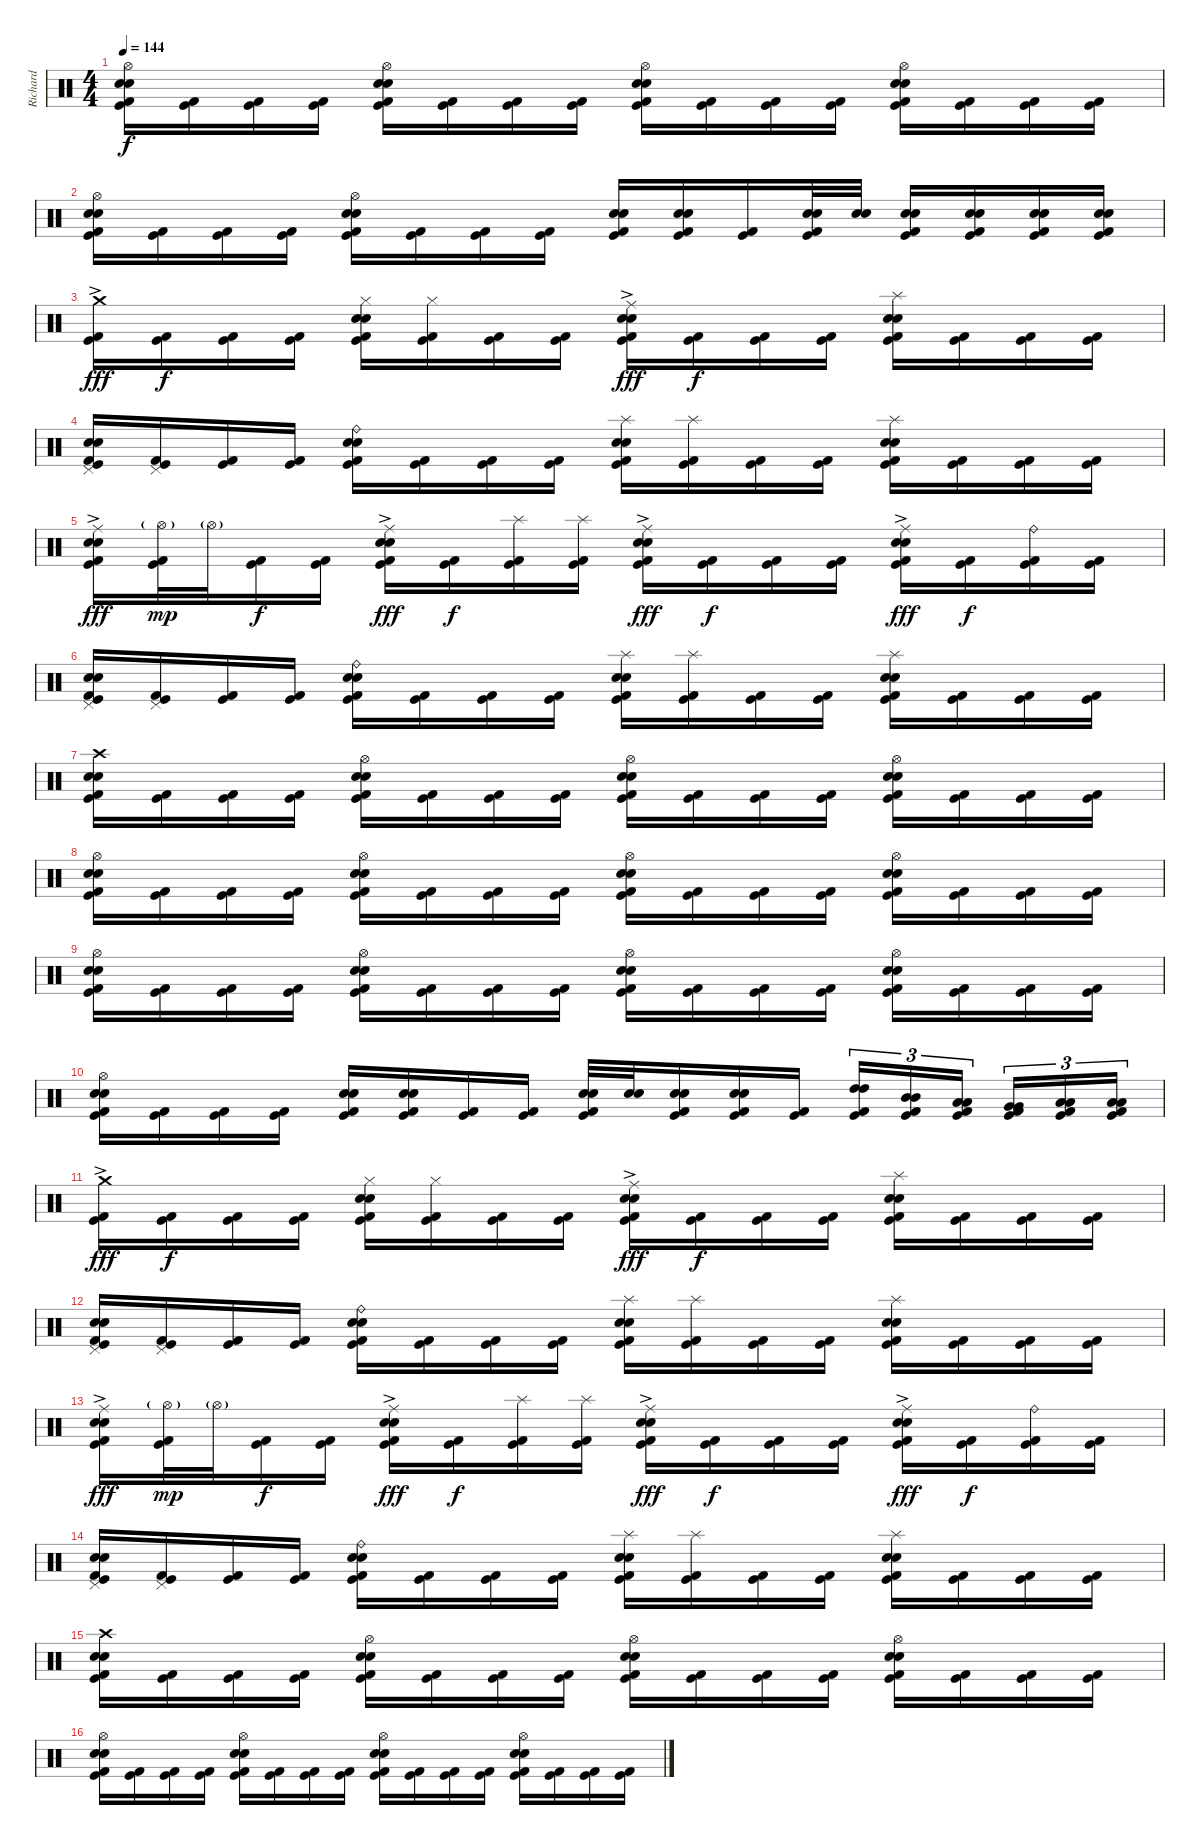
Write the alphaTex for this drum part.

\track ("Richard" "Richard") {instrument percussion}
\staff {score}
\articulation defaults
\ts (4 4)
\tempo 144
\clef neutral
\ks c
("Hi-Hat (open)" "Snare (hit) 2" "Electric Snare (hit)" "Kick (hit) 2" "Kick (hit)").16{dy f} ("Kick (hit) 2" "Kick (hit)").16 ("Kick (hit) 2" "Kick (hit)").16 ("Kick (hit) 2" "Kick (hit)").16 ("Hi-Hat (open)" "Snare (hit) 2" "Electric Snare (hit)" "Kick (hit) 2" "Kick (hit)").16 ("Kick (hit) 2" "Kick (hit)").16 ("Kick (hit) 2" "Kick (hit)").16 ("Kick (hit) 2" "Kick (hit)").16 ("Hi-Hat (open)" "Snare (hit) 2" "Electric Snare (hit)" "Kick (hit) 2" "Kick (hit)").16 ("Kick (hit) 2" "Kick (hit)").16 ("Kick (hit) 2" "Kick (hit)").16 ("Kick (hit) 2" "Kick (hit)").16 ("Hi-Hat (open)" "Snare (hit) 2" "Electric Snare (hit)" "Kick (hit) 2" "Kick (hit)").16 ("Kick (hit) 2" "Kick (hit)").16 ("Kick (hit) 2" "Kick (hit)").16 ("Kick (hit) 2" "Kick (hit)").16 |
("Hi-Hat (open)" "Snare (hit) 2" "Electric Snare (hit)" "Kick (hit) 2" "Kick (hit)").16 ("Kick (hit) 2" "Kick (hit)").16 ("Kick (hit) 2" "Kick (hit)").16 ("Kick (hit) 2" "Kick (hit)").16 ("Hi-Hat (open)" "Snare (hit) 2" "Electric Snare (hit)" "Kick (hit) 2" "Kick (hit)").16 ("Kick (hit) 2" "Kick (hit)").16 ("Kick (hit) 2" "Kick (hit)").16 ("Kick (hit) 2" "Kick (hit)").16 ("Snare (hit) 2" "Electric Snare (hit)" "Kick (hit) 2" "Kick (hit)").16 ("Snare (hit) 2" "Electric Snare (hit)" "Kick (hit) 2" "Kick (hit)").16 ("Kick (hit) 2" "Kick (hit)").16 ("Snare (hit) 2" "Electric Snare (hit)" "Kick (hit) 2" "Kick (hit)").32 ("Snare (hit) 2" "Electric Snare (hit)").32 ("Snare (hit) 2" "Electric Snare (hit)" "Kick (hit) 2" "Kick (hit)").16 ("Snare (hit) 2" "Electric Snare (hit)" "Kick (hit) 2" "Kick (hit)").16 ("Snare (hit) 2" "Electric Snare (hit)" "Kick (hit) 2" "Kick (hit)").16 ("Snare (hit) 2" "Electric Snare (hit)" "Kick (hit) 2" "Kick (hit)").16 |
("Crash medium (hit)"{ac} "Kick (hit) 2" "Kick (hit)").16{dy fff} ("Kick (hit) 2" "Kick (hit)").16{dy f} ("Kick (hit) 2" "Kick (hit)").16 ("Kick (hit) 2" "Kick (hit)").16 ("Hi-Hat (closed)" "Snare (hit) 2" "Electric Snare (hit)" "Kick (hit) 2" "Kick (hit)").16 ("Hi-Hat (closed)" "Kick (hit) 2" "Kick (hit)").16 ("Kick (hit) 2" "Kick (hit)").16 ("Kick (hit) 2" "Kick (hit)").16 ("Ride (middle)"{ac} "Snare (hit) 2" "Electric Snare (hit)" "Kick (hit) 2" "Kick (hit)").16{dy fff} ("Kick (hit) 2" "Kick (hit)").16{dy f} ("Kick (hit) 2" "Kick (hit)").16 ("Kick (hit) 2" "Kick (hit)").16 ("Splash (hit)" "Snare (hit) 2" "Electric Snare (hit)" "Kick (hit) 2" "Kick (hit)").16 ("Kick (hit) 2" "Kick (hit)").16 ("Kick (hit) 2" "Kick (hit)").16 ("Kick (hit) 2" "Kick (hit)").16 |
("Pedal Hi-Hat (hit)" "Snare (hit) 2" "Electric Snare (hit)" "Kick (hit) 2" "Kick (hit)").16 ("Pedal Hi-Hat (hit)" "Kick (hit) 2" "Kick (hit)").16 ("Kick (hit) 2" "Kick (hit)").16 ("Kick (hit) 2" "Kick (hit)").16 ("Ride (bell)" "Snare (hit) 2" "Electric Snare (hit)" "Kick (hit) 2" "Kick (hit)").16 ("Kick (hit) 2" "Kick (hit)").16 ("Kick (hit) 2" "Kick (hit)").16 ("Kick (hit) 2" "Kick (hit)").16 ("Splash (hit)" "Snare (hit) 2" "Electric Snare (hit)" "Kick (hit) 2" "Kick (hit)").16 ("Splash (hit)" "Kick (hit) 2" "Kick (hit)").16 ("Kick (hit) 2" "Kick (hit)").16 ("Kick (hit) 2" "Kick (hit)").16 ("Splash (hit)" "Snare (hit) 2" "Electric Snare (hit)" "Kick (hit) 2" "Kick (hit)").16 ("Kick (hit) 2" "Kick (hit)").16 ("Kick (hit) 2" "Kick (hit)").16 ("Kick (hit) 2" "Kick (hit)").16 |
("Ride (middle)"{ac} "Snare (hit) 2" "Electric Snare (hit)" "Kick (hit) 2" "Kick (hit)").16{dy fff} ("Hi-Hat (open)"{g} "Kick (hit) 2" "Kick (hit)").32{dy mp} "Hi-Hat (open)"{g}.32 ("Kick (hit) 2" "Kick (hit)").16{dy f} ("Kick (hit) 2" "Kick (hit)").16 ("Ride (middle)"{ac} "Snare (hit) 2" "Electric Snare (hit)" "Kick (hit) 2" "Kick (hit)").16{dy fff} ("Kick (hit) 2" "Kick (hit)").16{dy f} ("Splash (hit)" "Kick (hit) 2" "Kick (hit)").16 ("Splash (hit)" "Kick (hit) 2" "Kick (hit)").16 ("Ride (middle)"{ac} "Snare (hit) 2" "Electric Snare (hit)" "Kick (hit) 2" "Kick (hit)").16{dy fff} ("Kick (hit) 2" "Kick (hit)").16{dy f} ("Kick (hit) 2" "Kick (hit)").16 ("Kick (hit) 2" "Kick (hit)").16 ("Ride (middle)"{ac} "Snare (hit) 2" "Electric Snare (hit)" "Kick (hit) 2" "Kick (hit)").16{dy fff} ("Kick (hit) 2" "Kick (hit)").16{dy f} ("Ride (bell)" "Kick (hit) 2" "Kick (hit)").16 ("Kick (hit) 2" "Kick (hit)").16 |
("Pedal Hi-Hat (hit)" "Snare (hit) 2" "Electric Snare (hit)" "Kick (hit) 2" "Kick (hit)").16 ("Pedal Hi-Hat (hit)" "Kick (hit) 2" "Kick (hit)").16 ("Kick (hit) 2" "Kick (hit)").16 ("Kick (hit) 2" "Kick (hit)").16 ("Ride (bell)" "Snare (hit) 2" "Electric Snare (hit)" "Kick (hit) 2" "Kick (hit)").16 ("Kick (hit) 2" "Kick (hit)").16 ("Kick (hit) 2" "Kick (hit)").16 ("Kick (hit) 2" "Kick (hit)").16 ("Splash (hit)" "Snare (hit) 2" "Electric Snare (hit)" "Kick (hit) 2" "Kick (hit)").16 ("Splash (hit)" "Kick (hit) 2" "Kick (hit)").16 ("Kick (hit) 2" "Kick (hit)").16 ("Kick (hit) 2" "Kick (hit)").16 ("Splash (hit)" "Snare (hit) 2" "Electric Snare (hit)" "Kick (hit) 2" "Kick (hit)").16 ("Kick (hit) 2" "Kick (hit)").16 ("Kick (hit) 2" "Kick (hit)").16 ("Kick (hit) 2" "Kick (hit)").16 |
("Crash high (hit)" "Snare (hit) 2" "Electric Snare (hit)" "Kick (hit) 2" "Kick (hit)").16 ("Kick (hit) 2" "Kick (hit)").16 ("Kick (hit) 2" "Kick (hit)").16 ("Kick (hit) 2" "Kick (hit)").16 ("Hi-Hat (open)" "Snare (hit) 2" "Electric Snare (hit)" "Kick (hit) 2" "Kick (hit)").16 ("Kick (hit) 2" "Kick (hit)").16 ("Kick (hit) 2" "Kick (hit)").16 ("Kick (hit) 2" "Kick (hit)").16 ("Hi-Hat (open)" "Snare (hit) 2" "Electric Snare (hit)" "Kick (hit) 2" "Kick (hit)").16 ("Kick (hit) 2" "Kick (hit)").16 ("Kick (hit) 2" "Kick (hit)").16 ("Kick (hit) 2" "Kick (hit)").16 ("Hi-Hat (open)" "Snare (hit) 2" "Electric Snare (hit)" "Kick (hit) 2" "Kick (hit)").16 ("Kick (hit) 2" "Kick (hit)").16 ("Kick (hit) 2" "Kick (hit)").16 ("Kick (hit) 2" "Kick (hit)").16 |
("Hi-Hat (open)" "Snare (hit) 2" "Electric Snare (hit)" "Kick (hit) 2" "Kick (hit)").16 ("Kick (hit) 2" "Kick (hit)").16 ("Kick (hit) 2" "Kick (hit)").16 ("Kick (hit) 2" "Kick (hit)").16 ("Hi-Hat (open)" "Snare (hit) 2" "Electric Snare (hit)" "Kick (hit) 2" "Kick (hit)").16 ("Kick (hit) 2" "Kick (hit)").16 ("Kick (hit) 2" "Kick (hit)").16 ("Kick (hit) 2" "Kick (hit)").16 ("Hi-Hat (open)" "Snare (hit) 2" "Electric Snare (hit)" "Kick (hit) 2" "Kick (hit)").16 ("Kick (hit) 2" "Kick (hit)").16 ("Kick (hit) 2" "Kick (hit)").16 ("Kick (hit) 2" "Kick (hit)").16 ("Hi-Hat (open)" "Snare (hit) 2" "Electric Snare (hit)" "Kick (hit) 2" "Kick (hit)").16 ("Kick (hit) 2" "Kick (hit)").16 ("Kick (hit) 2" "Kick (hit)").16 ("Kick (hit) 2" "Kick (hit)").16 |
("Hi-Hat (open)" "Snare (hit) 2" "Electric Snare (hit)" "Kick (hit) 2" "Kick (hit)").16 ("Kick (hit) 2" "Kick (hit)").16 ("Kick (hit) 2" "Kick (hit)").16 ("Kick (hit) 2" "Kick (hit)").16 ("Hi-Hat (open)" "Snare (hit) 2" "Electric Snare (hit)" "Kick (hit) 2" "Kick (hit)").16 ("Kick (hit) 2" "Kick (hit)").16 ("Kick (hit) 2" "Kick (hit)").16 ("Kick (hit) 2" "Kick (hit)").16 ("Hi-Hat (open)" "Snare (hit) 2" "Electric Snare (hit)" "Kick (hit) 2" "Kick (hit)").16 ("Kick (hit) 2" "Kick (hit)").16 ("Kick (hit) 2" "Kick (hit)").16 ("Kick (hit) 2" "Kick (hit)").16 ("Hi-Hat (open)" "Snare (hit) 2" "Electric Snare (hit)" "Kick (hit) 2" "Kick (hit)").16 ("Kick (hit) 2" "Kick (hit)").16 ("Kick (hit) 2" "Kick (hit)").16 ("Kick (hit) 2" "Kick (hit)").16 |
("Hi-Hat (open)" "Snare (hit) 2" "Electric Snare (hit)" "Kick (hit) 2" "Kick (hit)").16 ("Kick (hit) 2" "Kick (hit)").16 ("Kick (hit) 2" "Kick (hit)").16 ("Kick (hit) 2" "Kick (hit)").16 ("Snare (hit) 2" "Electric Snare (hit)" "Kick (hit) 2" "Kick (hit)").16 ("Snare (hit) 2" "Electric Snare (hit)" "Kick (hit) 2" "Kick (hit)").16 ("Kick (hit) 2" "Kick (hit)").16 ("Kick (hit) 2" "Kick (hit)").16 ("Snare (hit) 2" "Electric Snare (hit)" "Kick (hit) 2" "Kick (hit)").32 ("Snare (hit) 2" "Electric Snare (hit)").32 ("Snare (hit) 2" "Electric Snare (hit)" "Kick (hit) 2" "Kick (hit)").16 ("Snare (hit) 2" "Electric Snare (hit)" "Kick (hit) 2" "Kick (hit)").16 ("Kick (hit) 2" "Kick (hit)").16 ("High Tom (hit)" "High Tom (hit)" "Kick (hit) 2" "Kick (hit)").16{tu (3 2)} ("Mid Tom (hit)" "Mid Tom (hit)" "Kick (hit) 2" "Kick (hit)").16{tu (3 2)} ("Low Tom (hit)" "Low Tom (hit)" "Kick (hit) 2" "Kick (hit)").16{tu (3 2)} ("Very Low Tom (hit)" "Very Low Tom (hit)" "Kick (hit) 2" "Kick (hit)").16{tu (3 2)} ("Low Floor Tom (hit)" "Low Floor Tom (hit)" "Kick (hit) 2" "Kick (hit)").16{tu (3 2)} ("Low Floor Tom (hit)" "Low Floor Tom (hit)" "Kick (hit) 2" "Kick (hit)").16{tu (3 2)} |
("Crash medium (hit)"{ac} "Kick (hit) 2" "Kick (hit)").16{dy fff} ("Kick (hit) 2" "Kick (hit)").16{dy f} ("Kick (hit) 2" "Kick (hit)").16 ("Kick (hit) 2" "Kick (hit)").16 ("Hi-Hat (closed)" "Snare (hit) 2" "Electric Snare (hit)" "Kick (hit) 2" "Kick (hit)").16 ("Hi-Hat (closed)" "Kick (hit) 2" "Kick (hit)").16 ("Kick (hit) 2" "Kick (hit)").16 ("Kick (hit) 2" "Kick (hit)").16 ("Ride (middle)"{ac} "Snare (hit) 2" "Electric Snare (hit)" "Kick (hit) 2" "Kick (hit)").16{dy fff} ("Kick (hit) 2" "Kick (hit)").16{dy f} ("Kick (hit) 2" "Kick (hit)").16 ("Kick (hit) 2" "Kick (hit)").16 ("Splash (hit)" "Snare (hit) 2" "Electric Snare (hit)" "Kick (hit) 2" "Kick (hit)").16 ("Kick (hit) 2" "Kick (hit)").16 ("Kick (hit) 2" "Kick (hit)").16 ("Kick (hit) 2" "Kick (hit)").16 |
("Pedal Hi-Hat (hit)" "Snare (hit) 2" "Electric Snare (hit)" "Kick (hit) 2" "Kick (hit)").16 ("Pedal Hi-Hat (hit)" "Kick (hit) 2" "Kick (hit)").16 ("Kick (hit) 2" "Kick (hit)").16 ("Kick (hit) 2" "Kick (hit)").16 ("Ride (bell)" "Snare (hit) 2" "Electric Snare (hit)" "Kick (hit) 2" "Kick (hit)").16 ("Kick (hit) 2" "Kick (hit)").16 ("Kick (hit) 2" "Kick (hit)").16 ("Kick (hit) 2" "Kick (hit)").16 ("Splash (hit)" "Snare (hit) 2" "Electric Snare (hit)" "Kick (hit) 2" "Kick (hit)").16 ("Splash (hit)" "Kick (hit) 2" "Kick (hit)").16 ("Kick (hit) 2" "Kick (hit)").16 ("Kick (hit) 2" "Kick (hit)").16 ("Splash (hit)" "Snare (hit) 2" "Electric Snare (hit)" "Kick (hit) 2" "Kick (hit)").16 ("Kick (hit) 2" "Kick (hit)").16 ("Kick (hit) 2" "Kick (hit)").16 ("Kick (hit) 2" "Kick (hit)").16 |
("Ride (middle)"{ac} "Snare (hit) 2" "Electric Snare (hit)" "Kick (hit) 2" "Kick (hit)").16{dy fff} ("Hi-Hat (open)"{g} "Kick (hit) 2" "Kick (hit)").32{dy mp} "Hi-Hat (open)"{g}.32 ("Kick (hit) 2" "Kick (hit)").16{dy f} ("Kick (hit) 2" "Kick (hit)").16 ("Ride (middle)"{ac} "Snare (hit) 2" "Electric Snare (hit)" "Kick (hit) 2" "Kick (hit)").16{dy fff} ("Kick (hit) 2" "Kick (hit)").16{dy f} ("Splash (hit)" "Kick (hit) 2" "Kick (hit)").16 ("Splash (hit)" "Kick (hit) 2" "Kick (hit)").16 ("Ride (middle)"{ac} "Snare (hit) 2" "Electric Snare (hit)" "Kick (hit) 2" "Kick (hit)").16{dy fff} ("Kick (hit) 2" "Kick (hit)").16{dy f} ("Kick (hit) 2" "Kick (hit)").16 ("Kick (hit) 2" "Kick (hit)").16 ("Ride (middle)"{ac} "Snare (hit) 2" "Electric Snare (hit)" "Kick (hit) 2" "Kick (hit)").16{dy fff} ("Kick (hit) 2" "Kick (hit)").16{dy f} ("Ride (bell)" "Kick (hit) 2" "Kick (hit)").16 ("Kick (hit) 2" "Kick (hit)").16 |
("Pedal Hi-Hat (hit)" "Snare (hit) 2" "Electric Snare (hit)" "Kick (hit) 2" "Kick (hit)").16 ("Pedal Hi-Hat (hit)" "Kick (hit) 2" "Kick (hit)").16 ("Kick (hit) 2" "Kick (hit)").16 ("Kick (hit) 2" "Kick (hit)").16 ("Ride (bell)" "Snare (hit) 2" "Electric Snare (hit)" "Kick (hit) 2" "Kick (hit)").16 ("Kick (hit) 2" "Kick (hit)").16 ("Kick (hit) 2" "Kick (hit)").16 ("Kick (hit) 2" "Kick (hit)").16 ("Splash (hit)" "Snare (hit) 2" "Electric Snare (hit)" "Kick (hit) 2" "Kick (hit)").16 ("Splash (hit)" "Kick (hit) 2" "Kick (hit)").16 ("Kick (hit) 2" "Kick (hit)").16 ("Kick (hit) 2" "Kick (hit)").16 ("Splash (hit)" "Snare (hit) 2" "Electric Snare (hit)" "Kick (hit) 2" "Kick (hit)").16 ("Kick (hit) 2" "Kick (hit)").16 ("Kick (hit) 2" "Kick (hit)").16 ("Kick (hit) 2" "Kick (hit)").16 |
("Crash high (hit)" "Snare (hit) 2" "Electric Snare (hit)" "Kick (hit) 2" "Kick (hit)").16 ("Kick (hit) 2" "Kick (hit)").16 ("Kick (hit) 2" "Kick (hit)").16 ("Kick (hit) 2" "Kick (hit)").16 ("Hi-Hat (open)" "Snare (hit) 2" "Electric Snare (hit)" "Kick (hit) 2" "Kick (hit)").16 ("Kick (hit) 2" "Kick (hit)").16 ("Kick (hit) 2" "Kick (hit)").16 ("Kick (hit) 2" "Kick (hit)").16 ("Hi-Hat (open)" "Snare (hit) 2" "Electric Snare (hit)" "Kick (hit) 2" "Kick (hit)").16 ("Kick (hit) 2" "Kick (hit)").16 ("Kick (hit) 2" "Kick (hit)").16 ("Kick (hit) 2" "Kick (hit)").16 ("Hi-Hat (open)" "Snare (hit) 2" "Electric Snare (hit)" "Kick (hit) 2" "Kick (hit)").16 ("Kick (hit) 2" "Kick (hit)").16 ("Kick (hit) 2" "Kick (hit)").16 ("Kick (hit) 2" "Kick (hit)").16 |
("Hi-Hat (open)" "Snare (hit) 2" "Electric Snare (hit)" "Kick (hit) 2" "Kick (hit)").16 ("Kick (hit) 2" "Kick (hit)").16 ("Kick (hit) 2" "Kick (hit)").16 ("Kick (hit) 2" "Kick (hit)").16 ("Hi-Hat (open)" "Snare (hit) 2" "Electric Snare (hit)" "Kick (hit) 2" "Kick (hit)").16 ("Kick (hit) 2" "Kick (hit)").16 ("Kick (hit) 2" "Kick (hit)").16 ("Kick (hit) 2" "Kick (hit)").16 ("Hi-Hat (open)" "Snare (hit) 2" "Electric Snare (hit)" "Kick (hit) 2" "Kick (hit)").16 ("Kick (hit) 2" "Kick (hit)").16 ("Kick (hit) 2" "Kick (hit)").16 ("Kick (hit) 2" "Kick (hit)").16 ("Hi-Hat (open)" "Snare (hit) 2" "Electric Snare (hit)" "Kick (hit) 2" "Kick (hit)").16 ("Kick (hit) 2" "Kick (hit)").16 ("Kick (hit) 2" "Kick (hit)").16 ("Kick (hit) 2" "Kick (hit)").16
